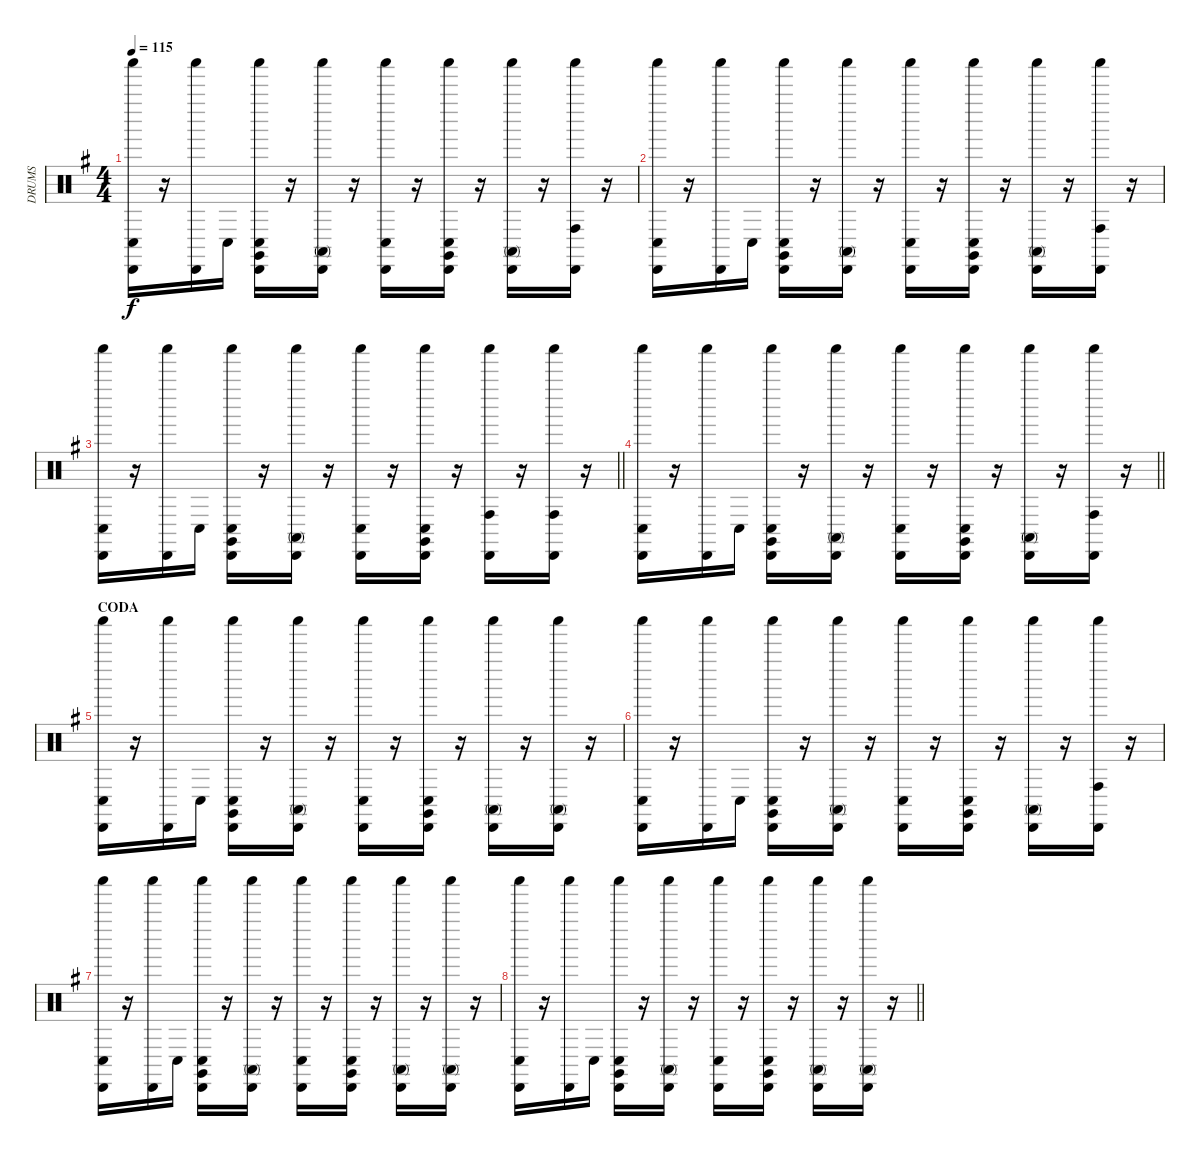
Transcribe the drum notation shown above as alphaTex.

\track ("DRUMS" "DRUMS") {instrument percussion}
\staff {score}
\articulation defaults
\ts (4 4)
\tempo 115
\clef neutral
\ks eminor
("Shaker (hit)" "Conga low (hit)" "Cabasa (hit)").16{dy f} r.16 ("Cabasa (hit)" "Shaker (hit)").16 "Conga low (hit)".16 ("Cabasa (hit)" "Conga low (hit)" "Shaker (hit)" "Claves (hit)").16 r.16 ("Shaker (hit)" "Conga high (mute)" "Cabasa (hit)").16 r.16 ("Shaker (hit)" "Conga low (hit)" "Cabasa (hit)").16 r.16 ("Conga low (hit)" "Cabasa (hit)" "Claves (hit)" "Shaker (hit)").16 r.16 ("Conga high (mute)" "Cabasa (hit)" "Shaker (hit)").16 r.16 ("Cabasa (hit)" "Shaker (hit)" "Conga high (hit)").16 r.16 |
("Shaker (hit)" "Cabasa (hit)" "Conga low (hit)").16 r.16 ("Shaker (hit)" "Cabasa (hit)").16 "Conga low (hit)".16 ("Cabasa (hit)" "Conga low (hit)" "Shaker (hit)" "Claves (hit)").16 r.16 ("Shaker (hit)" "Conga high (mute)" "Cabasa (hit)").16 r.16 ("Cabasa (hit)" "Conga low (hit)" "Shaker (hit)").16 r.16 ("Conga low (hit)" "Claves (hit)" "Shaker (hit)" "Cabasa (hit)").16 r.16 ("Shaker (hit)" "Cabasa (hit)" "Conga high (mute)").16 r.16 ("Shaker (hit)" "Cabasa (hit)" "Conga high (hit)").16 r.16 |
\barLineRight lightlight
("Conga low (hit)" "Cabasa (hit)" "Shaker (hit)").16 r.16 ("Shaker (hit)" "Cabasa (hit)").16 "Conga low (hit)".16 ("Shaker (hit)" "Conga low (hit)" "Cabasa (hit)" "Claves (hit)").16 r.16 ("Cabasa (hit)" "Conga high (mute)" "Shaker (hit)").16 r.16 ("Shaker (hit)" "Cabasa (hit)" "Conga low (hit)").16 r.16 ("Claves (hit)" "Cabasa (hit)" "Conga low (hit)" "Shaker (hit)").16 r.16 ("Cabasa (hit)" "Conga high (hit)" "Shaker (hit)").16 r.16 ("Cabasa (hit)" "Shaker (hit)" "Conga high (hit)").16 r.16 |
\section ("" "")
\barLineRight lightlight
("Shaker (hit)" "Conga low (hit)" "Cabasa (hit)").16 r.16 ("Cabasa (hit)" "Shaker (hit)").16 "Conga low (hit)".16 ("Cabasa (hit)" "Conga low (hit)" "Shaker (hit)" "Claves (hit)").16 r.16 ("Cabasa (hit)" "Shaker (hit)" "Conga high (mute)").16 r.16 ("Cabasa (hit)" "Shaker (hit)" "Conga low (hit)").16 r.16 ("Conga low (hit)" "Claves (hit)" "Shaker (hit)" "Cabasa (hit)").16 r.16 ("Cabasa (hit)" "Conga high (mute)" "Shaker (hit)").16 r.16 ("Shaker (hit)" "Conga high (hit)" "Cabasa (hit)").16 r.16 |
\section ("" "CODA")
("Conga low (hit)" "Cabasa (hit)" "Shaker (hit)").16 r.16 ("Cabasa (hit)" "Shaker (hit)").16 "Conga low (hit)".16 ("Claves (hit)" "Cabasa (hit)" "Conga low (hit)" "Shaker (hit)").16 r.16 ("Shaker (hit)" "Cabasa (hit)" "Conga high (mute)").16 r.16 ("Conga low (hit)" "Shaker (hit)" "Cabasa (hit)").16 r.16 ("Cabasa (hit)" "Conga low (hit)" "Claves (hit)" "Shaker (hit)").16 r.16 ("Shaker (hit)" "Conga high (mute)" "Cabasa (hit)").16 r.16 ("Shaker (hit)" "Conga high (mute)" "Cabasa (hit)").16 r.16 |
("Conga low (hit)" "Cabasa (hit)" "Shaker (hit)").16 r.16 ("Cabasa (hit)" "Shaker (hit)").16 "Conga low (hit)".16 ("Claves (hit)" "Shaker (hit)" "Conga low (hit)" "Cabasa (hit)").16 r.16 ("Cabasa (hit)" "Shaker (hit)" "Conga high (mute)").16 r.16 ("Conga low (hit)" "Cabasa (hit)" "Shaker (hit)").16 r.16 ("Shaker (hit)" "Cabasa (hit)" "Conga low (hit)" "Claves (hit)").16 r.16 ("Cabasa (hit)" "Conga high (mute)" "Shaker (hit)").16 r.16 ("Cabasa (hit)" "Conga high (hit)" "Shaker (hit)").16 r.16 |
("Shaker (hit)" "Cabasa (hit)" "Conga low (hit)").16 r.16 ("Shaker (hit)" "Cabasa (hit)").16 "Conga low (hit)".16 ("Cabasa (hit)" "Conga low (hit)" "Claves (hit)" "Shaker (hit)").16 r.16 ("Shaker (hit)" "Conga high (mute)" "Cabasa (hit)").16 r.16 ("Shaker (hit)" "Cabasa (hit)" "Conga low (hit)").16 r.16 ("Claves (hit)" "Conga low (hit)" "Cabasa (hit)" "Shaker (hit)").16 r.16 ("Shaker (hit)" "Cabasa (hit)" "Conga high (mute)").16 r.16 ("Cabasa (hit)" "Shaker (hit)" "Conga high (mute)").16 r.16 |
\barLineRight lightlight
("Conga low (hit)" "Cabasa (hit)" "Shaker (hit)").16 r.16 ("Cabasa (hit)" "Shaker (hit)").16 "Conga low (hit)".16 ("Shaker (hit)" "Cabasa (hit)" "Claves (hit)" "Conga low (hit)").16 r.16 ("Shaker (hit)" "Cabasa (hit)" "Conga high (mute)").16 r.16 ("Conga low (hit)" "Cabasa (hit)" "Shaker (hit)").16 r.16 ("Conga low (hit)" "Cabasa (hit)" "Claves (hit)" "Shaker (hit)").16 r.16 ("Shaker (hit)" "Cabasa (hit)" "Conga high (mute)").16 r.16 ("Cabasa (hit)" "Shaker (hit)" "Conga high (mute)").16 r.16
